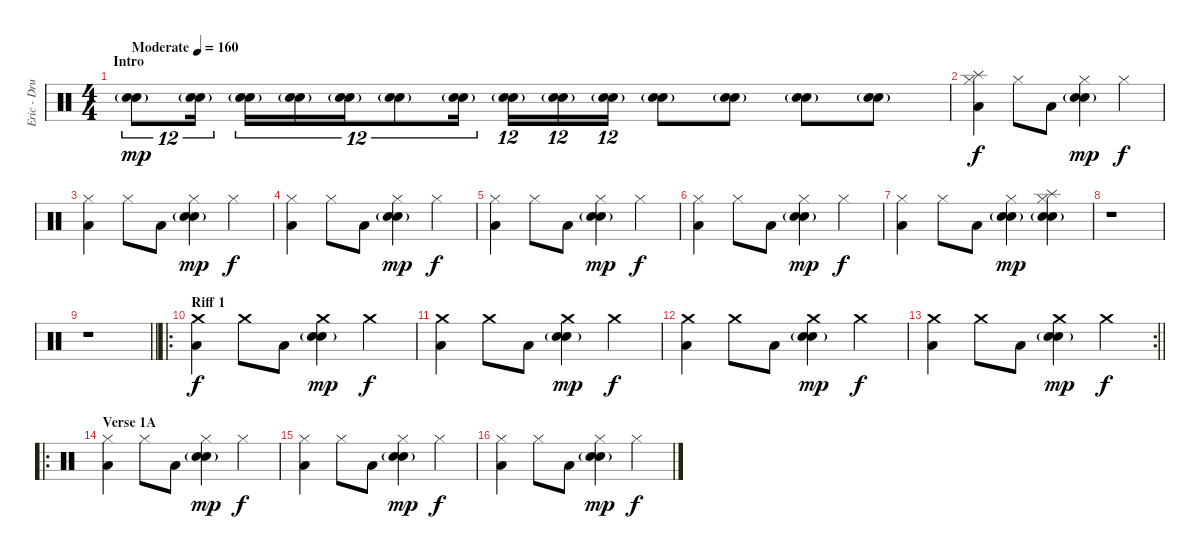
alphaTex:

\track ("Eric - Drums" "Eric - Dru") {instrument percussion}
\staff {score}
\articulation defaults
\ts (4 4)
\section ("" "Intro")
\tempo (160 "Moderate")
\clef neutral
\ks c
("Electric Snare (hit)" "Snare (hit) 2"{g}).8{tu (12 8) dy mp} ("Electric Snare (hit)" "Snare (hit) 2"{g}).16{tu (12 8) beam splitsecondary} ("Electric Snare (hit)" "Snare (hit) 2"{g}).16{tu (12 8)} ("Electric Snare (hit)" "Snare (hit) 2"{g}).16{tu (12 8)} ("Electric Snare (hit)" "Snare (hit) 2"{g}).16{tu (12 8)} ("Electric Snare (hit)" "Snare (hit) 2"{g}).8{tu (12 8)} ("Electric Snare (hit)" "Snare (hit) 2"{g}).16{tu (12 8) beam splitsecondary} ("Electric Snare (hit)" "Snare (hit) 2"{g}).16{tu (12 8)} ("Electric Snare (hit)" "Snare (hit) 2"{g}).16{tu (12 8)} ("Electric Snare (hit)" "Snare (hit) 2"{g}).16{tu (12 8)} ("Electric Snare (hit)" "Snare (hit) 2"{g}).8 ("Electric Snare (hit)" "Snare (hit) 2"{g}).8 ("Electric Snare (hit)" "Snare (hit) 2"{g}).8 ("Electric Snare (hit)" "Snare (hit) 2"{g}).8 |
("Hi-Hat (closed)" "Splash (hit)" "Low Floor Tom (hit)").4{dy f} "Hi-Hat (closed)".8 "Low Floor Tom (hit)".8 ("Hi-Hat (closed)" "Electric Snare (hit)" "Snare (hit) 2"{g}).4{dy mp} "Hi-Hat (closed)".4{dy f} |
("Hi-Hat (closed)" "Low Floor Tom (hit)").4 "Hi-Hat (closed)".8 "Low Floor Tom (hit)".8 ("Hi-Hat (closed)" "Electric Snare (hit)" "Snare (hit) 2"{g}).4{dy mp} "Hi-Hat (closed)".4{dy f} |
("Hi-Hat (closed)" "Low Floor Tom (hit)").4 "Hi-Hat (closed)".8 "Low Floor Tom (hit)".8 ("Hi-Hat (closed)" "Electric Snare (hit)" "Snare (hit) 2"{g}).4{dy mp} "Hi-Hat (closed)".4{dy f} |
("Hi-Hat (closed)" "Low Floor Tom (hit)").4 "Hi-Hat (closed)".8 "Low Floor Tom (hit)".8 ("Hi-Hat (closed)" "Electric Snare (hit)" "Snare (hit) 2"{g}).4{dy mp} "Hi-Hat (closed)".4{dy f} |
("Hi-Hat (closed)" "Low Floor Tom (hit)").4 "Hi-Hat (closed)".8 "Low Floor Tom (hit)".8 ("Hi-Hat (closed)" "Electric Snare (hit)" "Snare (hit) 2"{g}).4{dy mp} "Hi-Hat (closed)".4{dy f} |
("Hi-Hat (closed)" "Low Floor Tom (hit)").4 "Hi-Hat (closed)".8 "Low Floor Tom (hit)".8 ("Hi-Hat (closed)" "Electric Snare (hit)" "Snare (hit) 2"{g}).4{bu 120 dy mp} ("Hi-Hat (closed)" "Splash (hit)" "Electric Snare (hit)" "Snare (hit) 2"{g}).4 |
r.1 |
\barLineRight lightlight
r.1 |
\ro
\section ("" "Riff 1")
("Crash medium (hit)" "Low Floor Tom (hit)").4{dy f} "Crash medium (hit)".8 "Low Floor Tom (hit)".8 ("Crash medium (hit)" "Electric Snare (hit)" "Snare (hit) 2"{g}).4{dy mp} "Crash medium (hit)".4{dy f} |
("Crash medium (hit)" "Low Floor Tom (hit)").4 "Crash medium (hit)".8 "Low Floor Tom (hit)".8 ("Crash medium (hit)" "Electric Snare (hit)" "Snare (hit) 2"{g}).4{dy mp} "Crash medium (hit)".4{dy f} |
("Crash medium (hit)" "Low Floor Tom (hit)").4 "Crash medium (hit)".8 "Low Floor Tom (hit)".8 ("Crash medium (hit)" "Electric Snare (hit)" "Snare (hit) 2"{g}).4{dy mp} "Crash medium (hit)".4{dy f} |
\rc 2
\barLineRight lightlight
("Crash medium (hit)" "Low Floor Tom (hit)").4 "Crash medium (hit)".8 "Low Floor Tom (hit)".8 ("Crash medium (hit)" "Electric Snare (hit)" "Snare (hit) 2"{g}).4{dy mp} "Crash medium (hit)".4{dy f} |
\ro
\section ("" "Verse 1A")
("Hi-Hat (closed)" "Low Floor Tom (hit)").4 "Hi-Hat (closed)".8 "Low Floor Tom (hit)".8 ("Hi-Hat (closed)" "Electric Snare (hit)" "Snare (hit) 2"{g}).4{dy mp} "Hi-Hat (closed)".4{dy f} |
("Hi-Hat (closed)" "Low Floor Tom (hit)").4 "Hi-Hat (closed)".8 "Low Floor Tom (hit)".8 ("Hi-Hat (closed)" "Electric Snare (hit)" "Snare (hit) 2"{g}).4{dy mp} "Hi-Hat (closed)".4{dy f} |
("Hi-Hat (closed)" "Low Floor Tom (hit)").4 "Hi-Hat (closed)".8 "Low Floor Tom (hit)".8 ("Hi-Hat (closed)" "Electric Snare (hit)" "Snare (hit) 2"{g}).4{dy mp} "Hi-Hat (closed)".4{dy f}
